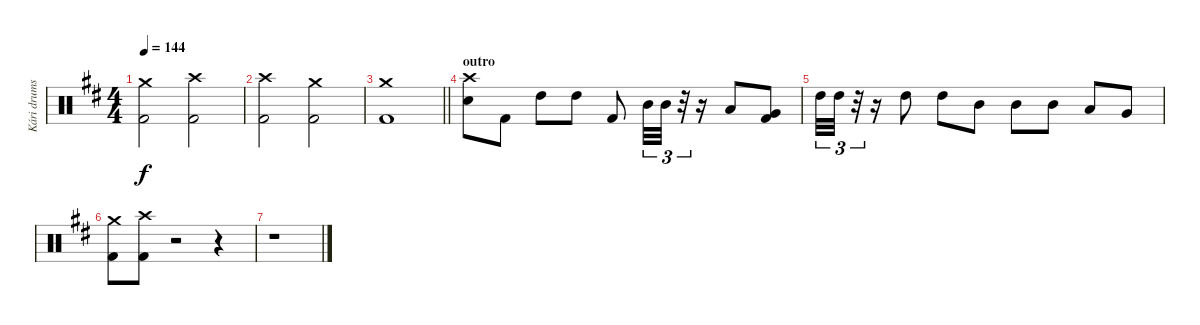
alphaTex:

\track ("Kári drums" "Kári drums") {instrument percussion}
\staff {score}
\articulation defaults
\ts (4 4)
\tempo 144
\clef neutral
\ks bminor
("Crash medium (hit)" "Kick (hit) 2").2{dy f} ("Crash high (hit)" "Kick (hit) 2").2 |
("Crash high (hit)" "Kick (hit) 2").2 ("Crash medium (hit)" "Kick (hit) 2").2 |
\barLineRight lightlight
("Crash medium (hit)" "Kick (hit) 2").1 |
\section ("" "outro")
("Crash high (hit)" "Snare (hit) 2").8 "Kick (hit) 2".8 "High Tom (hit)".8 "High Tom (hit)".8 "Kick (hit) 2".8 "Mid Tom (hit)".32{tu (3 2)} "Mid Tom (hit)".32{tu (3 2)} r.32{tu (3 2)} r.16 "Low Tom (hit)".8 ("Kick (hit) 2" "Very Low Tom (hit)").8 |
"High Tom (hit)".32{tu (3 2)} "High Tom (hit)".32{tu (3 2)} r.32{tu (3 2)} r.16 "High Tom (hit)".8 "High Tom (hit)".8 "Mid Tom (hit)".8 "Mid Tom (hit)".8 "Mid Tom (hit)".8 "Low Tom (hit)".8 "Very Low Tom (hit)".8 |
("Crash medium (hit)" "Kick (hit) 2").8 ("Crash high (hit)" "Kick (hit) 2").8 r.2 r.4 |
r.1
